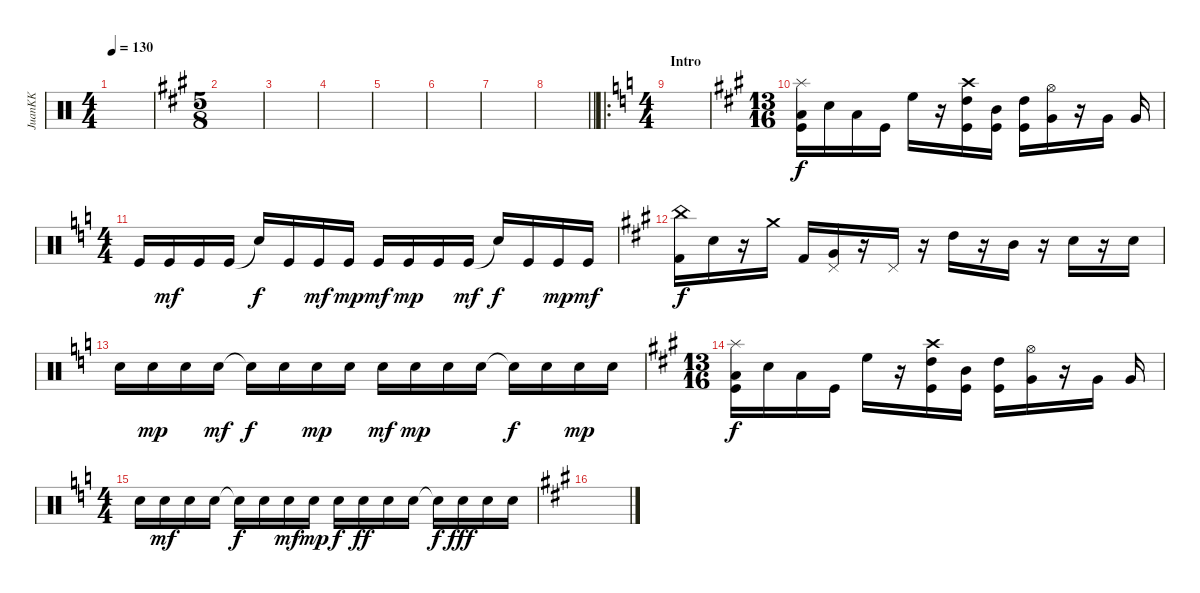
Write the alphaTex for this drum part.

\track ("JuanKK" "JuanKK") {instrument percussion}
\staff {score}
\articulation defaults
\ts (4 4)
\tempo 130
\clef neutral
\ks c
|
\ts (5 8)
\ks a
|
|
|
|
|
|
\barLineRight lightlight
|
\ro
\ts (4 4)
\section ("" "Intro")
\ks c
|
\ts (13 16)
\ks a
("Kick (hit)" "Low Tom (hit)" "Splash (hit)").16 "Electric Snare (hit)".16 "Low Floor Tom (hit)".16 "Kick (hit)".16 "High Floor Tom (hit)".16 r.16 ("Kick (hit)" "High Tom (hit)" "Crash high (hit)").16 ("Kick (hit)" "Mid Tom (hit)").16 ("Kick (hit)" "High Tom (hit)").16 ("Very Low Tom (hit)" "Hi-Hat (open)").16 r.16 "Very Low Tom (hit)".16 "Very Low Tom (hit)".16 |
\ts (4 4)
\ks c "Kick (hit)".16 "Kick (hit)".16{dy mf} "Kick (hit)".16 "Kick (hit)".16 "Snare (hit)"{t}.16{dy f} "Kick (hit)".16 "Kick (hit)".16{dy mf} "Kick (hit)".16{dy mp} "Kick (hit)".16{dy mf} "Kick (hit)".16{dy mp} "Kick (hit)".16 "Kick (hit)".16{dy mf} "Snare (hit)"{t}.16{dy f} "Kick (hit)".16 "Kick (hit)".16{dy mp} "Kick (hit)".16{dy mf}
|
\ks a
("China (hit)" "Kick (hit) 2").16{dy f} "Electric Snare (hit)".16 r.16 "Crash medium (hit)".16 "Kick (hit) 2".16 ("Very Low Tom (hit)" "Pedal Hi-Hat (hit)").16 r.16 "Pedal Hi-Hat (hit)".16 r.16 "High Tom (hit)".16 r.16 "Mid Tom (hit)".16 r.16 "Snare (hit) 2".16 r.16 "Snare (hit) 2".16 |
\ks c "Electric Snare (hit)".16 "Electric Snare (hit)".16{dy mp} "Electric Snare (hit)".16 "Electric Snare (hit)".16{dy mf} "Snare (hit)"{t}.16{dy f} "Electric Snare (hit)".16 "Electric Snare (hit)".16{dy mp} "Electric Snare (hit)".16 "Electric Snare (hit)".16{dy mf} "Electric Snare (hit)".16{dy mp} "Electric Snare (hit)".16 "Electric Snare (hit)".16 "Snare (hit)"{t}.16{dy f} "Electric Snare (hit)".16 "Electric Snare (hit)".16{dy mp} "Electric Snare (hit)".16
|
\ts (13 16)
\ks a
("Kick (hit)" "Low Tom (hit)" "Splash (hit)").16{dy f} "Electric Snare (hit)".16 "Low Floor Tom (hit)".16 "Kick (hit)".16 "High Floor Tom (hit)".16 r.16 ("Kick (hit)" "High Tom (hit)" "Crash high (hit)").16 ("Kick (hit)" "Mid Tom (hit)").16 ("Kick (hit)" "High Tom (hit)").16 ("Very Low Tom (hit)" "Hi-Hat (open)").16 r.16 "Very Low Tom (hit)".16 "Very Low Tom (hit)".16 |
\ts (4 4)
\ks c "Electric Snare (hit)".16 "Electric Snare (hit)".16{dy mf} "Electric Snare (hit)".16 "Electric Snare (hit)".16 "Snare (hit)"{t}.16{dy f} "Electric Snare (hit)".16 "Electric Snare (hit)".16{dy mf} "Electric Snare (hit)".16{dy mp} "Electric Snare (hit)".16{dy f} "Electric Snare (hit)".16{dy ff} "Electric Snare (hit)".16 "Electric Snare (hit)".16 "Snare (hit)"{t}.16{dy f} "Electric Snare (hit)".16{dy fff} "Electric Snare (hit)".16 "Electric Snare (hit)".16
|
\ks a
